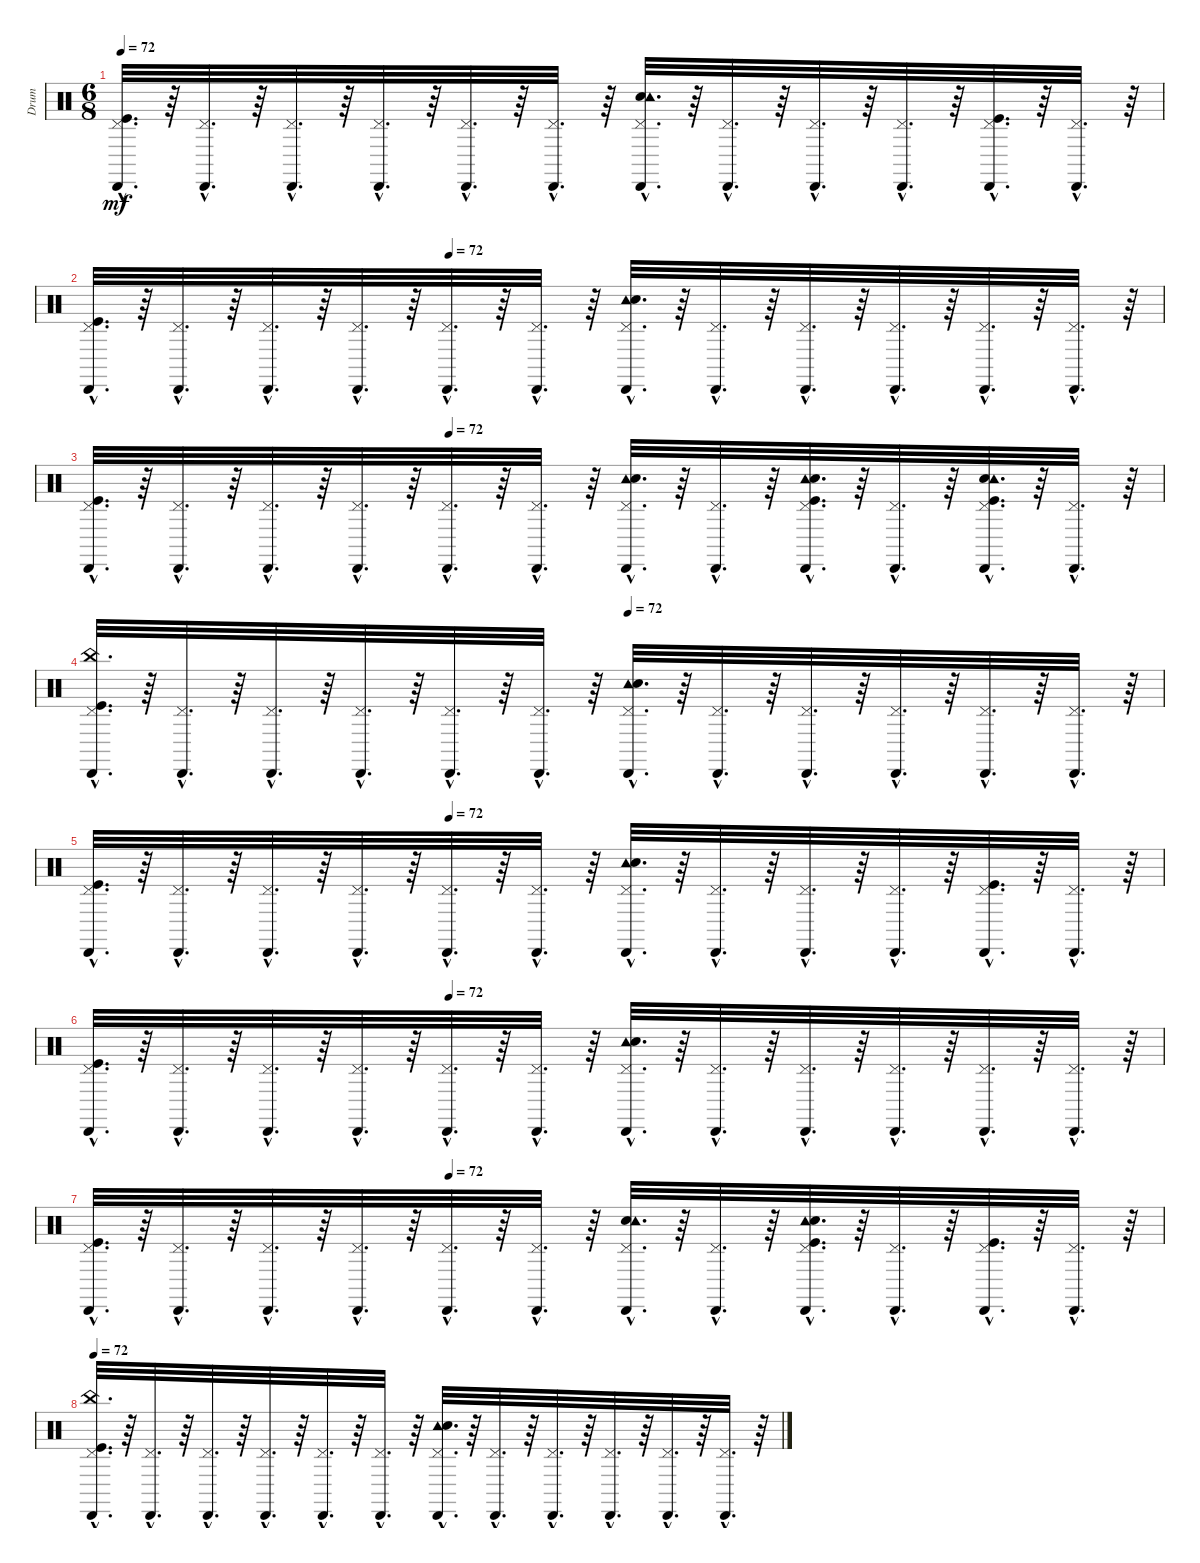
\track ("Drum" "Drum") {instrument percussion}
\staff {score}
\articulation defaults
\ts (6 8)
\tempo 72
\clef neutral
\ks c
("Cabasa (hit)"{hac} "Pedal Hi-Hat (hit)"{hac} "Kick (hit)"{hac}).32{d dy mf} r.64 ("Cabasa (hit)"{hac} "Pedal Hi-Hat (hit)"{hac}).32{d} r.64 ("Pedal Hi-Hat (hit)"{hac} "Cabasa (hit)"{hac}).32{d} r.64 ("Pedal Hi-Hat (hit)"{hac} "Cabasa (hit)"{hac}).32{d} r.64 ("Pedal Hi-Hat (hit)"{hac} "Cabasa (hit)"{hac}).32{d} r.64 ("Pedal Hi-Hat (hit)"{hac} "Cabasa (hit)"{hac}).32{d} r.64 ("Electric Snare (hit)"{hac} "Tambourine (hit)"{hac} "Pedal Hi-Hat (hit)"{hac} "Cabasa (hit)"{hac}).32{d} r.64 ("Cabasa (hit)"{hac} "Pedal Hi-Hat (hit)"{hac}).32{d} r.64 ("Pedal Hi-Hat (hit)"{hac} "Cabasa (hit)"{hac}).32{d} r.64 ("Pedal Hi-Hat (hit)"{hac} "Cabasa (hit)"{hac}).32{d} r.64 ("Kick (hit)"{hac} "Cabasa (hit)"{hac} "Pedal Hi-Hat (hit)"{hac}).32{d} r.64 ("Pedal Hi-Hat (hit)"{hac} "Cabasa (hit)"{hac}).32{d} r.64 |
\tempo (72 0.3333333333333333)
("Kick (hit)"{hac} "Cabasa (hit)"{hac} "Pedal Hi-Hat (hit)"{hac}).32{d} r.64 ("Pedal Hi-Hat (hit)"{hac} "Cabasa (hit)"{hac}).32{d} r.64 ("Cabasa (hit)"{hac} "Pedal Hi-Hat (hit)"{hac}).32{d} r.64 ("Cabasa (hit)"{hac} "Pedal Hi-Hat (hit)"{hac}).32{d} r.64 ("Cabasa (hit)"{hac} "Pedal Hi-Hat (hit)"{hac}).32{d} r.64 ("Pedal Hi-Hat (hit)"{hac} "Cabasa (hit)"{hac}).32{d} r.64 ("Pedal Hi-Hat (hit)"{hac} "Cabasa (hit)"{hac} "Tambourine (hit)"{hac} "Electric Snare (hit)"{hac}).32{d} r.64 ("Pedal Hi-Hat (hit)"{hac} "Cabasa (hit)"{hac}).32{d} r.64 ("Cabasa (hit)"{hac} "Pedal Hi-Hat (hit)"{hac}).32{d} r.64 ("Cabasa (hit)"{hac} "Pedal Hi-Hat (hit)"{hac}).32{d} r.64 ("Cabasa (hit)"{hac} "Pedal Hi-Hat (hit)"{hac}).32{d} r.64 ("Cabasa (hit)"{hac} "Pedal Hi-Hat (hit)"{hac}).32{d} r.64 |
\tempo (72 0.3333333333333333)
("Kick (hit)"{hac} "Cabasa (hit)"{hac} "Pedal Hi-Hat (hit)"{hac}).32{d} r.64 ("Cabasa (hit)"{hac} "Pedal Hi-Hat (hit)"{hac}).32{d} r.64 ("Pedal Hi-Hat (hit)"{hac} "Cabasa (hit)"{hac}).32{d} r.64 ("Cabasa (hit)"{hac} "Pedal Hi-Hat (hit)"{hac}).32{d} r.64 ("Pedal Hi-Hat (hit)"{hac} "Cabasa (hit)"{hac}).32{d} r.64 ("Cabasa (hit)"{hac} "Pedal Hi-Hat (hit)"{hac}).32{d} r.64 ("Pedal Hi-Hat (hit)"{hac} "Tambourine (hit)"{hac} "Electric Snare (hit)"{hac} "Cabasa (hit)"{hac}).32{d} r.64 ("Pedal Hi-Hat (hit)"{hac} "Cabasa (hit)"{hac}).32{d} r.64 ("Tambourine (hit)"{hac} "Pedal Hi-Hat (hit)"{hac} "Kick (hit)"{hac} "Cabasa (hit)"{hac} "Electric Snare (hit)"{hac}).32{d} r.64 ("Cabasa (hit)"{hac} "Pedal Hi-Hat (hit)"{hac}).32{d} r.64 ("Cabasa (hit)"{hac} "Electric Snare (hit)"{hac} "Pedal Hi-Hat (hit)"{hac} "Kick (hit)"{hac} "Tambourine (hit)"{hac}).32{d} r.64 ("Cabasa (hit)"{hac} "Pedal Hi-Hat (hit)"{hac}).32{d} r.64 |
\tempo (72 0.5)
("China (hit)"{hac} "Cabasa (hit)"{hac} "Pedal Hi-Hat (hit)"{hac} "Kick (hit)"{hac}).32{d} r.64 ("Cabasa (hit)"{hac} "Pedal Hi-Hat (hit)"{hac}).32{d} r.64 ("Cabasa (hit)"{hac} "Pedal Hi-Hat (hit)"{hac}).32{d} r.64 ("Cabasa (hit)"{hac} "Pedal Hi-Hat (hit)"{hac}).32{d} r.64 ("Cabasa (hit)"{hac} "Pedal Hi-Hat (hit)"{hac}).32{d} r.64 ("Cabasa (hit)"{hac} "Pedal Hi-Hat (hit)"{hac}).32{d} r.64 ("Cabasa (hit)"{hac} "Pedal Hi-Hat (hit)"{hac} "Tambourine (hit)"{hac} "Electric Snare (hit)"{hac}).32{d} r.64 ("Cabasa (hit)"{hac} "Pedal Hi-Hat (hit)"{hac}).32{d} r.64 ("Cabasa (hit)"{hac} "Pedal Hi-Hat (hit)"{hac}).32{d} r.64 ("Cabasa (hit)"{hac} "Pedal Hi-Hat (hit)"{hac}).32{d} r.64 ("Cabasa (hit)"{hac} "Pedal Hi-Hat (hit)"{hac}).32{d} r.64 ("Cabasa (hit)"{hac} "Pedal Hi-Hat (hit)"{hac}).32{d} r.64 |
\tempo (72 0.3333333333333333)
("Cabasa (hit)"{hac} "Pedal Hi-Hat (hit)"{hac} "Kick (hit)"{hac}).32{d} r.64 ("Cabasa (hit)"{hac} "Pedal Hi-Hat (hit)"{hac}).32{d} r.64 ("Cabasa (hit)"{hac} "Pedal Hi-Hat (hit)"{hac}).32{d} r.64 ("Cabasa (hit)"{hac} "Pedal Hi-Hat (hit)"{hac}).32{d} r.64 ("Cabasa (hit)"{hac} "Pedal Hi-Hat (hit)"{hac}).32{d} r.64 ("Cabasa (hit)"{hac} "Pedal Hi-Hat (hit)"{hac}).32{d} r.64 ("Cabasa (hit)"{hac} "Pedal Hi-Hat (hit)"{hac} "Tambourine (hit)"{hac} "Electric Snare (hit)"{hac}).32{d} r.64 ("Cabasa (hit)"{hac} "Pedal Hi-Hat (hit)"{hac}).32{d} r.64 ("Cabasa (hit)"{hac} "Pedal Hi-Hat (hit)"{hac}).32{d} r.64 ("Cabasa (hit)"{hac} "Pedal Hi-Hat (hit)"{hac}).32{d} r.64 ("Kick (hit)"{hac} "Cabasa (hit)"{hac} "Pedal Hi-Hat (hit)"{hac}).32{d} r.64 ("Cabasa (hit)"{hac} "Pedal Hi-Hat (hit)"{hac}).32{d} r.64 |
\tempo (72 0.3333333333333333)
("Cabasa (hit)"{hac} "Pedal Hi-Hat (hit)"{hac} "Kick (hit)"{hac}).32{d} r.64 ("Cabasa (hit)"{hac} "Pedal Hi-Hat (hit)"{hac}).32{d} r.64 ("Cabasa (hit)"{hac} "Pedal Hi-Hat (hit)"{hac}).32{d} r.64 ("Cabasa (hit)"{hac} "Pedal Hi-Hat (hit)"{hac}).32{d} r.64 ("Cabasa (hit)"{hac} "Pedal Hi-Hat (hit)"{hac}).32{d} r.64 ("Cabasa (hit)"{hac} "Pedal Hi-Hat (hit)"{hac}).32{d} r.64 ("Cabasa (hit)"{hac} "Pedal Hi-Hat (hit)"{hac} "Tambourine (hit)"{hac} "Electric Snare (hit)"{hac}).32{d} r.64 ("Cabasa (hit)"{hac} "Pedal Hi-Hat (hit)"{hac}).32{d} r.64 ("Cabasa (hit)"{hac} "Pedal Hi-Hat (hit)"{hac}).32{d} r.64 ("Cabasa (hit)"{hac} "Pedal Hi-Hat (hit)"{hac}).32{d} r.64 ("Cabasa (hit)"{hac} "Pedal Hi-Hat (hit)"{hac}).32{d} r.64 ("Cabasa (hit)"{hac} "Pedal Hi-Hat (hit)"{hac}).32{d} r.64 |
\tempo (72 0.3333333333333333)
("Cabasa (hit)"{hac} "Kick (hit)"{hac} "Pedal Hi-Hat (hit)"{hac}).32{d} r.64 ("Cabasa (hit)"{hac} "Pedal Hi-Hat (hit)"{hac}).32{d} r.64 ("Cabasa (hit)"{hac} "Pedal Hi-Hat (hit)"{hac}).32{d} r.64 ("Pedal Hi-Hat (hit)"{hac} "Cabasa (hit)"{hac}).32{d} r.64 ("Cabasa (hit)"{hac} "Pedal Hi-Hat (hit)"{hac}).32{d} r.64 ("Pedal Hi-Hat (hit)"{hac} "Cabasa (hit)"{hac}).32{d} r.64 ("Electric Snare (hit)"{hac} "Tambourine (hit)"{hac} "Cabasa (hit)"{hac} "Pedal Hi-Hat (hit)"{hac}).32{d} r.64 ("Pedal Hi-Hat (hit)"{hac} "Cabasa (hit)"{hac}).32{d} r.64 ("Tambourine (hit)"{hac} "Kick (hit)"{hac} "Electric Snare (hit)"{hac} "Pedal Hi-Hat (hit)"{hac} "Cabasa (hit)"{hac}).32{d} r.64 ("Cabasa (hit)"{hac} "Pedal Hi-Hat (hit)"{hac}).32{d} r.64 ("Cabasa (hit)"{hac} "Pedal Hi-Hat (hit)"{hac} "Kick (hit)"{hac}).32{d} r.64 ("Cabasa (hit)"{hac} "Pedal Hi-Hat (hit)"{hac}).32{d} r.64 |
\tempo 72
("China (hit)"{hac} "Cabasa (hit)"{hac} "Pedal Hi-Hat (hit)"{hac} "Kick (hit)"{hac}).32{d} r.64 ("Cabasa (hit)"{hac} "Pedal Hi-Hat (hit)"{hac}).32{d} r.64 ("Cabasa (hit)"{hac} "Pedal Hi-Hat (hit)"{hac}).32{d} r.64 ("Cabasa (hit)"{hac} "Pedal Hi-Hat (hit)"{hac}).32{d} r.64 ("Cabasa (hit)"{hac} "Pedal Hi-Hat (hit)"{hac}).32{d} r.64 ("Cabasa (hit)"{hac} "Pedal Hi-Hat (hit)"{hac}).32{d} r.64 ("Cabasa (hit)"{hac} "Pedal Hi-Hat (hit)"{hac} "Tambourine (hit)"{hac} "Electric Snare (hit)"{hac}).32{d} r.64 ("Cabasa (hit)"{hac} "Pedal Hi-Hat (hit)"{hac}).32{d} r.64 ("Cabasa (hit)"{hac} "Pedal Hi-Hat (hit)"{hac}).32{d} r.64 ("Cabasa (hit)"{hac} "Pedal Hi-Hat (hit)"{hac}).32{d} r.64 ("Cabasa (hit)"{hac} "Pedal Hi-Hat (hit)"{hac}).32{d} r.64 ("Cabasa (hit)"{hac} "Pedal Hi-Hat (hit)"{hac}).32{d} r.64
